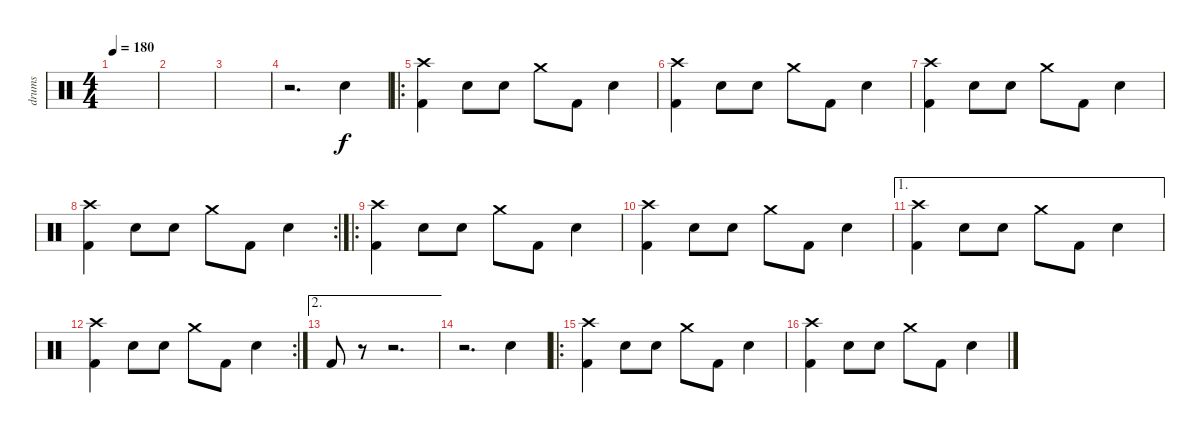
\track ("drums" "drums") {instrument percussion}
\staff {score}
\articulation defaults
\ts (4 4)
\tempo 180
\clef neutral
\ks c
|
|
|
r.2{d} "Electric Snare (hit)".4 |
\ro
("Crash high (hit)" "Kick (hit) 2").4 "Electric Snare (hit)".8 "Electric Snare (hit)".8 "Crash medium (hit)".8 "Kick (hit) 2".8 "Electric Snare (hit)".4 |
("Crash high (hit)" "Kick (hit) 2").4 "Electric Snare (hit)".8 "Electric Snare (hit)".8 "Crash medium (hit)".8 "Kick (hit) 2".8 "Electric Snare (hit)".4 |
("Crash high (hit)" "Kick (hit) 2").4 "Electric Snare (hit)".8 "Electric Snare (hit)".8 "Crash medium (hit)".8 "Kick (hit) 2".8 "Electric Snare (hit)".4 |
\rc 2
("Crash high (hit)" "Kick (hit) 2").4 "Electric Snare (hit)".8 "Electric Snare (hit)".8 "Crash medium (hit)".8 "Kick (hit) 2".8 "Electric Snare (hit)".4 |
\ro
("Crash high (hit)" "Kick (hit) 2").4 "Electric Snare (hit)".8 "Electric Snare (hit)".8 "Crash medium (hit)".8 "Kick (hit) 2".8 "Electric Snare (hit)".4 |
("Crash high (hit)" "Kick (hit) 2").4 "Electric Snare (hit)".8 "Electric Snare (hit)".8 "Crash medium (hit)".8 "Kick (hit) 2".8 "Electric Snare (hit)".4 |
\ae 1
("Crash high (hit)" "Kick (hit) 2").4 "Electric Snare (hit)".8 "Electric Snare (hit)".8 "Crash medium (hit)".8 "Kick (hit) 2".8 "Electric Snare (hit)".4 |
\rc 2
("Crash high (hit)" "Kick (hit) 2").4 "Electric Snare (hit)".8 "Electric Snare (hit)".8 "Crash medium (hit)".8 "Kick (hit) 2".8 "Electric Snare (hit)".4 |
\ae 2 "Kick (hit) 2".8
r.8 r.2{d} |
r.2{d} "Electric Snare (hit)".4 |
\ro
("Crash high (hit)" "Kick (hit) 2").4 "Electric Snare (hit)".8 "Electric Snare (hit)".8 "Crash medium (hit)".8 "Kick (hit) 2".8 "Electric Snare (hit)".4 |
("Crash high (hit)" "Kick (hit) 2").4 "Electric Snare (hit)".8 "Electric Snare (hit)".8 "Crash medium (hit)".8 "Kick (hit) 2".8 "Electric Snare (hit)".4
